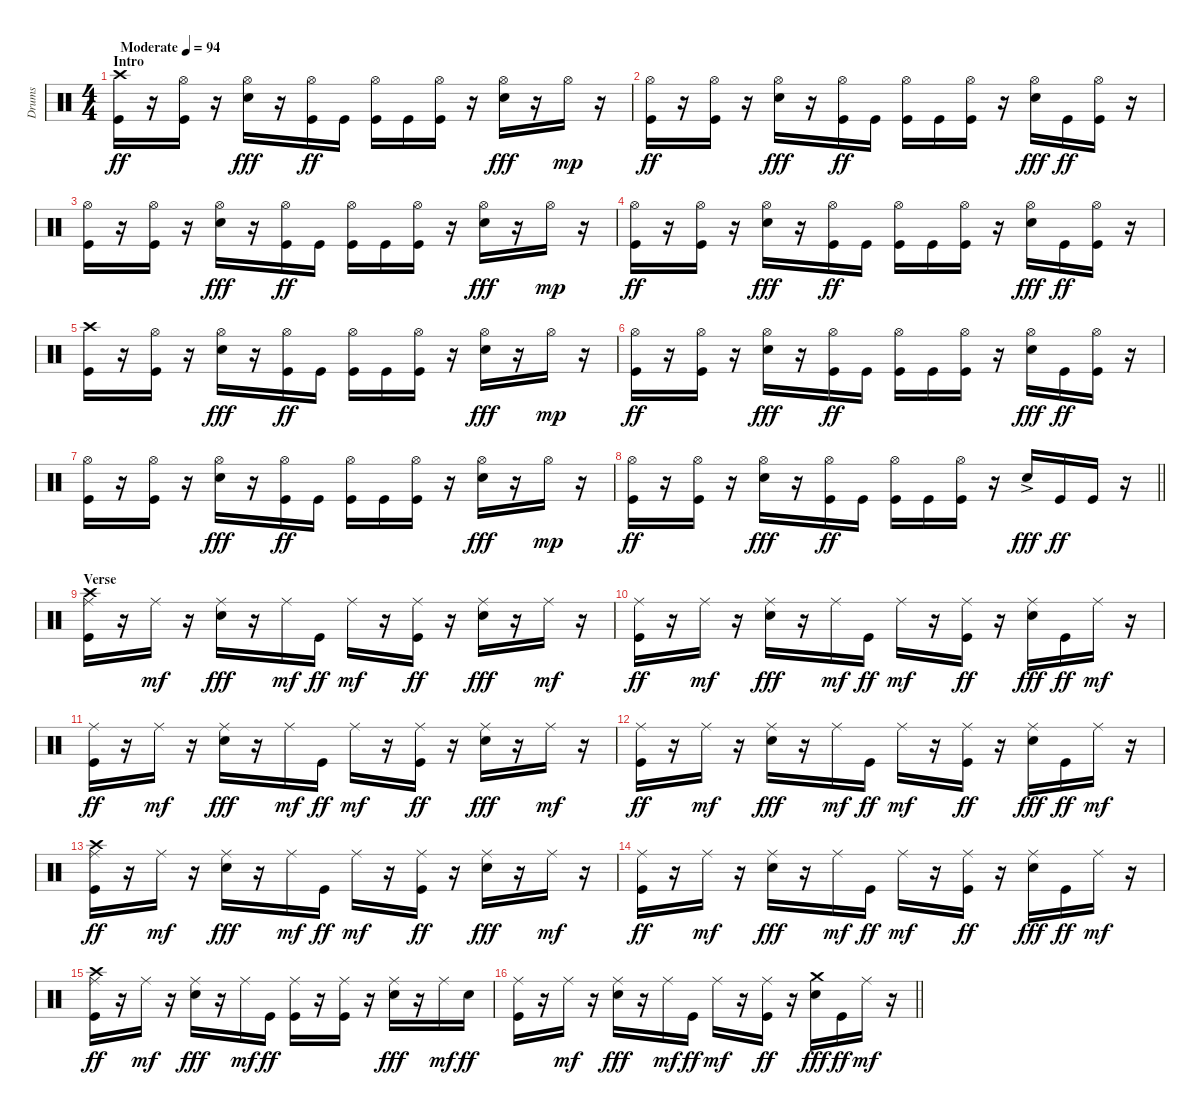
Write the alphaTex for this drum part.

\track ("Drums" "Drums") {instrument percussion}
\staff {score}
\articulation defaults
\ts (4 4)
\section ("" "Intro")
\tempo (94 "Moderate")
\clef neutral
\ks c
("Crash high (hit)" "Kick (hit)").16{dy ff} r.16 ("Hi-Hat (open)" "Kick (hit)").16 r.16 ("Hi-Hat (open)" "Electric Snare (hit)").16{dy fff} r.16 ("Hi-Hat (open)" "Kick (hit)").16{dy ff} "Kick (hit)".16 ("Hi-Hat (open)" "Kick (hit)").16 "Kick (hit)".16 ("Hi-Hat (open)" "Kick (hit)").16 r.16 ("Hi-Hat (open)" "Electric Snare (hit)").16{dy fff} r.16 "Hi-Hat (open)".16{dy mp} r.16 |
("Hi-Hat (open)" "Kick (hit)").16{dy ff} r.16 ("Hi-Hat (open)" "Kick (hit)").16 r.16 ("Hi-Hat (open)" "Electric Snare (hit)").16{dy fff} r.16 ("Hi-Hat (open)" "Kick (hit)").16{dy ff} "Kick (hit)".16 ("Hi-Hat (open)" "Kick (hit)").16 "Kick (hit)".16 ("Hi-Hat (open)" "Kick (hit)").16 r.16 ("Hi-Hat (open)" "Electric Snare (hit)").16{dy fff} "Kick (hit)".16{dy ff} ("Hi-Hat (open)" "Kick (hit)").16 r.16 |
("Hi-Hat (open)" "Kick (hit)").16 r.16 ("Hi-Hat (open)" "Kick (hit)").16 r.16 ("Hi-Hat (open)" "Electric Snare (hit)").16{dy fff} r.16 ("Hi-Hat (open)" "Kick (hit)").16{dy ff} "Kick (hit)".16 ("Hi-Hat (open)" "Kick (hit)").16 "Kick (hit)".16 ("Hi-Hat (open)" "Kick (hit)").16 r.16 ("Hi-Hat (open)" "Electric Snare (hit)").16{dy fff} r.16 "Hi-Hat (open)".16{dy mp} r.16 |
("Hi-Hat (open)" "Kick (hit)").16{dy ff} r.16 ("Hi-Hat (open)" "Kick (hit)").16 r.16 ("Hi-Hat (open)" "Electric Snare (hit)").16{dy fff} r.16 ("Hi-Hat (open)" "Kick (hit)").16{dy ff} "Kick (hit)".16 ("Hi-Hat (open)" "Kick (hit)").16 "Kick (hit)".16 ("Hi-Hat (open)" "Kick (hit)").16 r.16 ("Hi-Hat (open)" "Electric Snare (hit)").16{dy fff} "Kick (hit)".16{dy ff} ("Hi-Hat (open)" "Kick (hit)").16 r.16 |
("Crash high (hit)" "Kick (hit)").16 r.16 ("Hi-Hat (open)" "Kick (hit)").16 r.16 ("Hi-Hat (open)" "Electric Snare (hit)").16{dy fff} r.16 ("Hi-Hat (open)" "Kick (hit)").16{dy ff} "Kick (hit)".16 ("Hi-Hat (open)" "Kick (hit)").16 "Kick (hit)".16 ("Hi-Hat (open)" "Kick (hit)").16 r.16 ("Hi-Hat (open)" "Electric Snare (hit)").16{dy fff} r.16 "Hi-Hat (open)".16{dy mp} r.16 |
("Hi-Hat (open)" "Kick (hit)").16{dy ff} r.16 ("Hi-Hat (open)" "Kick (hit)").16 r.16 ("Hi-Hat (open)" "Electric Snare (hit)").16{dy fff} r.16 ("Hi-Hat (open)" "Kick (hit)").16{dy ff} "Kick (hit)".16 ("Hi-Hat (open)" "Kick (hit)").16 "Kick (hit)".16 ("Hi-Hat (open)" "Kick (hit)").16 r.16 ("Hi-Hat (open)" "Electric Snare (hit)").16{dy fff} "Kick (hit)".16{dy ff} ("Hi-Hat (open)" "Kick (hit)").16 r.16 |
("Hi-Hat (open)" "Kick (hit)").16 r.16 ("Hi-Hat (open)" "Kick (hit)").16 r.16 ("Hi-Hat (open)" "Electric Snare (hit)").16{dy fff} r.16 ("Hi-Hat (open)" "Kick (hit)").16{dy ff} "Kick (hit)".16 ("Hi-Hat (open)" "Kick (hit)").16 "Kick (hit)".16 ("Hi-Hat (open)" "Kick (hit)").16 r.16 ("Hi-Hat (open)" "Electric Snare (hit)").16{dy fff} r.16 "Hi-Hat (open)".16{dy mp} r.16 |
\barLineRight lightlight
("Hi-Hat (open)" "Kick (hit)").16{dy ff} r.16 ("Hi-Hat (open)" "Kick (hit)").16 r.16 ("Hi-Hat (open)" "Electric Snare (hit)").16{dy fff} r.16 ("Hi-Hat (open)" "Kick (hit)").16{dy ff} "Kick (hit)".16 ("Hi-Hat (open)" "Kick (hit)").16 "Kick (hit)".16 ("Hi-Hat (open)" "Kick (hit)").16 r.16 "Electric Snare (hit)"{ac}.16{dy fff} "Kick (hit)".16{dy ff} "Kick (hit)".16 r.16 |
\section ("" "Verse")
("Crash high (hit)" "Ride (middle)" "Kick (hit)").16 r.16 "Ride (middle)".16{dy mf} r.16 ("Ride (middle)" "Electric Snare (hit)").16{dy fff} r.16 "Ride (middle)".16{dy mf} "Kick (hit)".16{dy ff} "Ride (middle)".16{dy mf} r.16 ("Ride (middle)" "Kick (hit)").16{dy ff} r.16 ("Ride (middle)" "Electric Snare (hit)").16{dy fff} r.16 "Ride (middle)".16{dy mf} r.16 |
("Ride (middle)" "Kick (hit)").16{dy ff} r.16 "Ride (middle)".16{dy mf} r.16 ("Ride (middle)" "Electric Snare (hit)").16{dy fff} r.16 "Ride (middle)".16{dy mf} "Kick (hit)".16{dy ff} "Ride (middle)".16{dy mf} r.16 ("Ride (middle)" "Kick (hit)").16{dy ff} r.16 ("Ride (middle)" "Electric Snare (hit)").16{dy fff} "Kick (hit)".16{dy ff} "Ride (middle)".16{dy mf} r.16 |
("Ride (middle)" "Kick (hit)").16{dy ff} r.16 "Ride (middle)".16{dy mf} r.16 ("Ride (middle)" "Electric Snare (hit)").16{dy fff} r.16 "Ride (middle)".16{dy mf} "Kick (hit)".16{dy ff} "Ride (middle)".16{dy mf} r.16 ("Ride (middle)" "Kick (hit)").16{dy ff} r.16 ("Ride (middle)" "Electric Snare (hit)").16{dy fff} r.16 "Ride (middle)".16{dy mf} r.16 |
("Ride (middle)" "Kick (hit)").16{dy ff} r.16 "Ride (middle)".16{dy mf} r.16 ("Ride (middle)" "Electric Snare (hit)").16{dy fff} r.16 "Ride (middle)".16{dy mf} "Kick (hit)".16{dy ff} "Ride (middle)".16{dy mf} r.16 ("Ride (middle)" "Kick (hit)").16{dy ff} r.16 ("Ride (middle)" "Electric Snare (hit)").16{dy fff} "Kick (hit)".16{dy ff} "Ride (middle)".16{dy mf} r.16 |
("Crash high (hit)" "Ride (middle)" "Kick (hit)").16{dy ff} r.16 "Ride (middle)".16{dy mf} r.16 ("Ride (middle)" "Electric Snare (hit)").16{dy fff} r.16 "Ride (middle)".16{dy mf} "Kick (hit)".16{dy ff} "Ride (middle)".16{dy mf} r.16 ("Ride (middle)" "Kick (hit)").16{dy ff} r.16 ("Ride (middle)" "Electric Snare (hit)").16{dy fff} r.16 "Ride (middle)".16{dy mf} r.16 |
("Ride (middle)" "Kick (hit)").16{dy ff} r.16 "Ride (middle)".16{dy mf} r.16 ("Ride (middle)" "Electric Snare (hit)").16{dy fff} r.16 "Ride (middle)".16{dy mf} "Kick (hit)".16{dy ff} "Ride (middle)".16{dy mf} r.16 ("Ride (middle)" "Kick (hit)").16{dy ff} r.16 ("Ride (middle)" "Electric Snare (hit)").16{dy fff} "Kick (hit)".16{dy ff} "Ride (middle)".16{dy mf} r.16 |
("Crash high (hit)" "Ride (middle)" "Kick (hit)").16{dy ff} r.16 "Ride (middle)".16{dy mf} r.16 ("Ride (middle)" "Electric Snare (hit)").16{dy fff} r.16 "Ride (middle)".16{dy mf} "Kick (hit)".16{dy ff} ("Ride (middle)" "Kick (hit)").16 r.16 ("Ride (middle)" "Kick (hit)").16 r.16 ("Ride (middle)" "Electric Snare (hit)").16{dy fff} r.16 "Ride (middle)".16{dy mf} "Electric Snare (hit)".16{dy ff} |
\barLineRight lightlight
("Ride (middle)" "Kick (hit)").16 r.16 "Ride (middle)".16{dy mf} r.16 ("Ride (middle)" "Electric Snare (hit)").16{dy fff} r.16 "Ride (middle)".16{dy mf} "Kick (hit)".16{dy ff} "Ride (middle)".16{dy mf} r.16 ("Ride (middle)" "Kick (hit)").16{dy ff} r.16 ("Crash medium (hit)" "Electric Snare (hit)").16{dy fff} "Kick (hit)".16{dy ff} "Ride (middle)".16{dy mf} r.16
